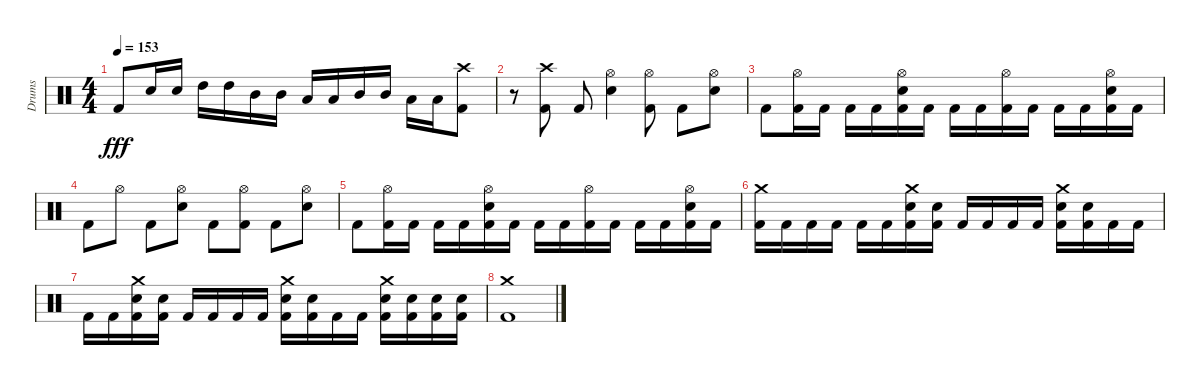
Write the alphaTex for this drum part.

\track ("Drums" "Drums") {instrument percussion}
\staff {score}
\articulation defaults
\ts (4 4)
\tempo 153
\clef neutral
\ks c "Kick (hit) 2".8{dy fff} "Electric Snare (hit)".16 "Electric Snare (hit)".16 "High Tom (hit)".16 "High Tom (hit)".16 "Mid Tom (hit)".16 "Mid Tom (hit)".16 "Low Tom (hit)".16 "Low Tom (hit)".16 "Mid Tom (hit)".16 "Mid Tom (hit)".16 "Low Tom (hit)".16 "Low Tom (hit)".16
("Crash high (hit)" "Kick (hit) 2").8 |
r.8 ("Crash high (hit)" "Kick (hit) 2").8 "Kick (hit) 2".8 ("Hi-Hat (open)" "Electric Snare (hit)").4 ("Hi-Hat (open)" "Kick (hit) 2").8 "Kick (hit) 2".8 ("Hi-Hat (open)" "Electric Snare (hit)").8 |
"Kick (hit) 2".8 ("Hi-Hat (open)" "Kick (hit) 2").16 "Kick (hit) 2".16 "Kick (hit) 2".16 "Kick (hit) 2".16 ("Hi-Hat (open)" "Electric Snare (hit)" "Kick (hit) 2").16 "Kick (hit) 2".16 "Kick (hit) 2".16 "Kick (hit) 2".16 ("Hi-Hat (open)" "Kick (hit) 2").16 "Kick (hit) 2".16 "Kick (hit) 2".16 "Kick (hit) 2".16 ("Hi-Hat (open)" "Electric Snare (hit)" "Kick (hit) 2").16 "Kick (hit) 2".16 |
"Kick (hit) 2".8 "Hi-Hat (open)".8 "Kick (hit) 2".8 ("Hi-Hat (open)" "Electric Snare (hit)").8 "Kick (hit) 2".8 ("Hi-Hat (open)" "Kick (hit) 2").8 "Kick (hit) 2".8 ("Hi-Hat (open)" "Electric Snare (hit)").8 |
"Kick (hit) 2".8 ("Hi-Hat (open)" "Kick (hit) 2").16 "Kick (hit) 2".16 "Kick (hit) 2".16 "Kick (hit) 2".16 ("Hi-Hat (open)" "Electric Snare (hit)" "Kick (hit) 2").16 "Kick (hit) 2".16 "Kick (hit) 2".16 "Kick (hit) 2".16 ("Hi-Hat (open)" "Kick (hit) 2").16 "Kick (hit) 2".16 "Kick (hit) 2".16 "Kick (hit) 2".16 ("Hi-Hat (open)" "Electric Snare (hit)" "Kick (hit) 2").16 "Kick (hit) 2".16 |
("Crash medium (hit)" "Kick (hit) 2").16 "Kick (hit) 2".16 "Kick (hit) 2".16 "Kick (hit) 2".16 "Kick (hit) 2".16 "Kick (hit) 2".16 ("Crash medium (hit)" "Electric Snare (hit)" "Kick (hit) 2").16 ("Electric Snare (hit)" "Kick (hit) 2").16 "Kick (hit) 2".16 "Kick (hit) 2".16 "Kick (hit) 2".16 "Kick (hit) 2".16 ("Crash medium (hit)" "Electric Snare (hit)" "Kick (hit) 2").16 ("Electric Snare (hit)" "Kick (hit) 2").16 "Kick (hit) 2".16 "Kick (hit) 2".16 |
"Kick (hit) 2".16 "Kick (hit) 2".16 ("Crash medium (hit)" "Electric Snare (hit)" "Kick (hit) 2").16 ("Electric Snare (hit)" "Kick (hit) 2").16 "Kick (hit) 2".16 "Kick (hit) 2".16 "Kick (hit) 2".16 "Kick (hit) 2".16 ("Crash medium (hit)" "Electric Snare (hit)" "Kick (hit) 2").16 ("Electric Snare (hit)" "Kick (hit) 2").16 "Kick (hit) 2".16 "Kick (hit) 2".16 ("Crash medium (hit)" "Electric Snare (hit)" "Kick (hit) 2").16 ("Electric Snare (hit)" "Kick (hit) 2").16 ("Electric Snare (hit)" "Kick (hit) 2").16 ("Electric Snare (hit)" "Kick (hit) 2").16 |
("Crash medium (hit)" "Kick (hit) 2").1
